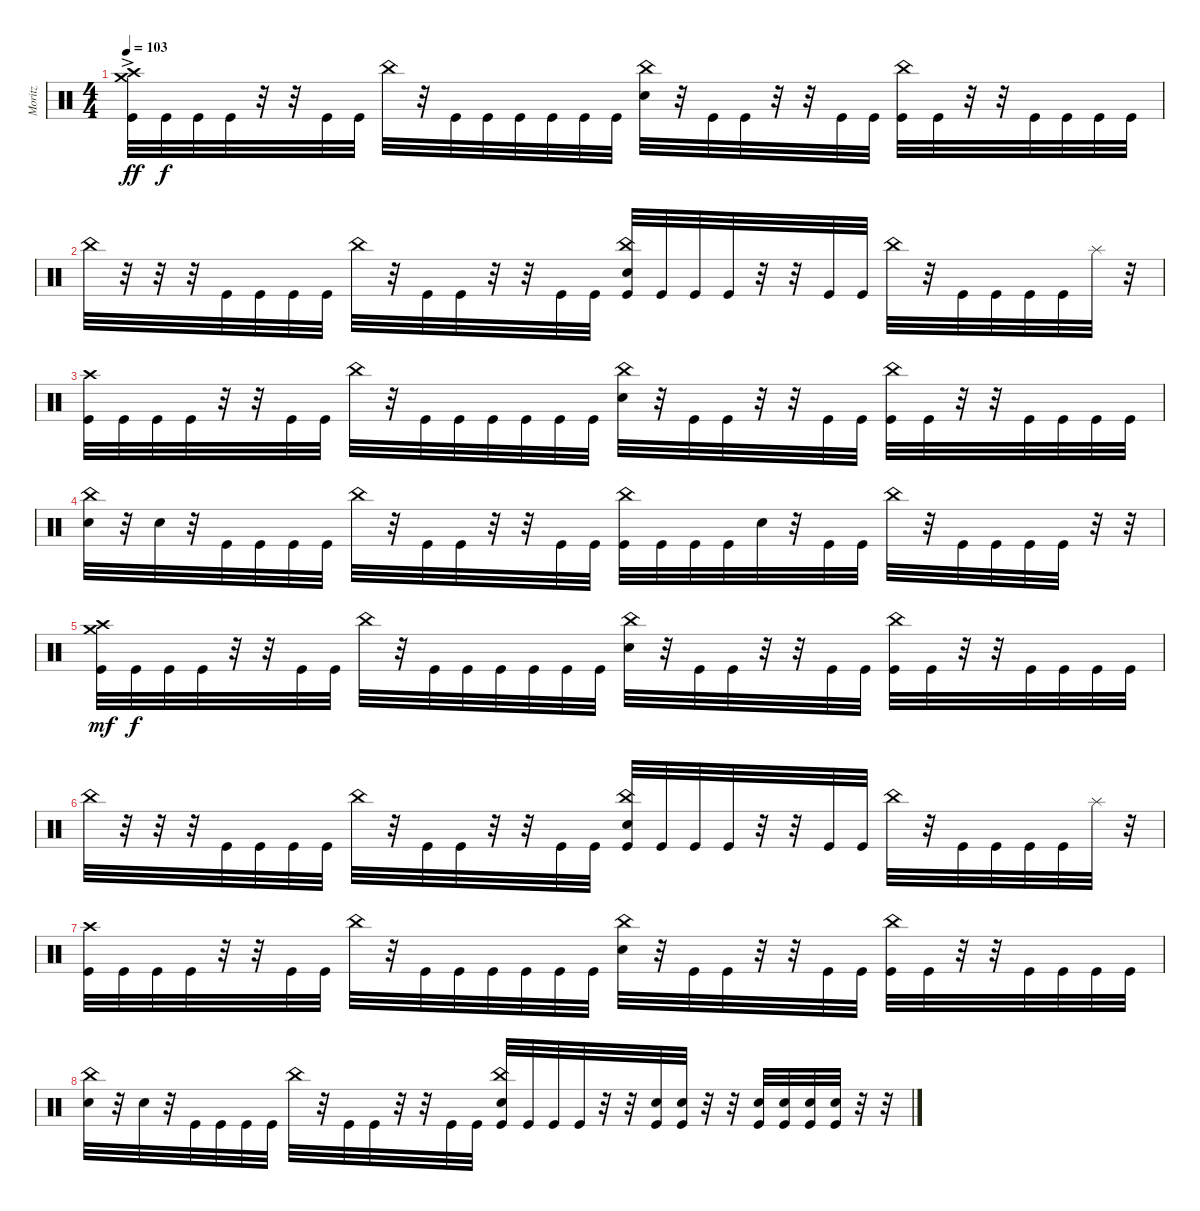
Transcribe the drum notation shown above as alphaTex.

\track ("Moritz" "Moritz") {instrument percussion}
\staff {score}
\articulation defaults
\ts (4 4)
\tempo 103
\clef neutral
\ks c
("Crash medium (hit)"{ac} "Crash high (hit)"{ac} "Kick (hit)"{ac}).32{dy ff} "Kick (hit)".32{dy f} "Kick (hit)".32 "Kick (hit)".32 r.32 r.32 "Kick (hit)".32 "Kick (hit)".32 "China (hit)".32 r.32 "Kick (hit)".32 "Kick (hit)".32 "Kick (hit)".32 "Kick (hit)".32 "Kick (hit)".32 "Kick (hit)".32 ("China (hit)" "Snare (hit) 2").32 r.32 "Kick (hit)".32 "Kick (hit)".32 r.32 r.32 "Kick (hit)".32 "Kick (hit)".32 ("China (hit)" "Kick (hit)").32 "Kick (hit)".32 r.32 r.32 "Kick (hit)".32 "Kick (hit)".32 "Kick (hit)".32 "Kick (hit)".32 |
"China (hit)".32 r.32 r.32 r.32 "Kick (hit)".32 "Kick (hit)".32 "Kick (hit)".32 "Kick (hit)".32 "China (hit)".32 r.32 "Kick (hit)".32 "Kick (hit)".32 r.32 r.32 "Kick (hit)".32 "Kick (hit)".32 ("China (hit)" "Snare (hit) 2" "Kick (hit)").32 "Kick (hit)".32 "Kick (hit)".32 "Kick (hit)".32 r.32 r.32 "Kick (hit)".32 "Kick (hit)".32 "China (hit)".32 r.32 "Kick (hit)".32 "Kick (hit)".32 "Kick (hit)".32 "Kick (hit)".32 "Splash (hit)".32 r.32 |
("Crash high (hit)" "Kick (hit)").32 "Kick (hit)".32 "Kick (hit)".32 "Kick (hit)".32 r.32 r.32 "Kick (hit)".32 "Kick (hit)".32 "China (hit)".32 r.32 "Kick (hit)".32 "Kick (hit)".32 "Kick (hit)".32 "Kick (hit)".32 "Kick (hit)".32 "Kick (hit)".32 ("China (hit)" "Snare (hit) 2").32 r.32 "Kick (hit)".32 "Kick (hit)".32 r.32 r.32 "Kick (hit)".32 "Kick (hit)".32 ("China (hit)" "Kick (hit)").32 "Kick (hit)".32 r.32 r.32 "Kick (hit)".32 "Kick (hit)".32 "Kick (hit)".32 "Kick (hit)".32 |
("China (hit)" "Snare (hit) 2").32 r.32 "Snare (hit) 2".32 r.32 "Kick (hit)".32 "Kick (hit)".32 "Kick (hit)".32 "Kick (hit)".32 "China (hit)".32 r.32 "Kick (hit)".32 "Kick (hit)".32 r.32 r.32 "Kick (hit)".32 "Kick (hit)".32 ("China (hit)" "Kick (hit)").32 "Kick (hit)".32 "Kick (hit)".32 "Kick (hit)".32 "Snare (hit) 2".32 r.32 "Kick (hit)".32 "Kick (hit)".32 "China (hit)".32 r.32 "Kick (hit)".32 "Kick (hit)".32 "Kick (hit)".32 "Kick (hit)".32 r.32 r.32 |
("Crash medium (hit)" "Crash high (hit)" "Kick (hit)").32{dy mf} "Kick (hit)".32{dy f} "Kick (hit)".32 "Kick (hit)".32 r.32 r.32 "Kick (hit)".32 "Kick (hit)".32 "China (hit)".32 r.32 "Kick (hit)".32 "Kick (hit)".32 "Kick (hit)".32 "Kick (hit)".32 "Kick (hit)".32 "Kick (hit)".32 ("China (hit)" "Snare (hit) 2").32 r.32 "Kick (hit)".32 "Kick (hit)".32 r.32 r.32 "Kick (hit)".32 "Kick (hit)".32 ("China (hit)" "Kick (hit)").32 "Kick (hit)".32 r.32 r.32 "Kick (hit)".32 "Kick (hit)".32 "Kick (hit)".32 "Kick (hit)".32 |
"China (hit)".32 r.32 r.32 r.32 "Kick (hit)".32 "Kick (hit)".32 "Kick (hit)".32 "Kick (hit)".32 "China (hit)".32 r.32 "Kick (hit)".32 "Kick (hit)".32 r.32 r.32 "Kick (hit)".32 "Kick (hit)".32 ("China (hit)" "Snare (hit) 2" "Kick (hit)").32 "Kick (hit)".32 "Kick (hit)".32 "Kick (hit)".32 r.32 r.32 "Kick (hit)".32 "Kick (hit)".32 "China (hit)".32 r.32 "Kick (hit)".32 "Kick (hit)".32 "Kick (hit)".32 "Kick (hit)".32 "Splash (hit)".32 r.32 |
("Crash high (hit)" "Kick (hit)").32 "Kick (hit)".32 "Kick (hit)".32 "Kick (hit)".32 r.32 r.32 "Kick (hit)".32 "Kick (hit)".32 "China (hit)".32 r.32 "Kick (hit)".32 "Kick (hit)".32 "Kick (hit)".32 "Kick (hit)".32 "Kick (hit)".32 "Kick (hit)".32 ("China (hit)" "Snare (hit) 2").32 r.32 "Kick (hit)".32 "Kick (hit)".32 r.32 r.32 "Kick (hit)".32 "Kick (hit)".32 ("China (hit)" "Kick (hit)").32 "Kick (hit)".32 r.32 r.32 "Kick (hit)".32 "Kick (hit)".32 "Kick (hit)".32 "Kick (hit)".32 |
("China (hit)" "Snare (hit) 2").32 r.32 "Snare (hit) 2".32 r.32 "Kick (hit)".32 "Kick (hit)".32 "Kick (hit)".32 "Kick (hit)".32 "China (hit)".32 r.32 "Kick (hit)".32 "Kick (hit)".32 r.32 r.32 "Kick (hit)".32 "Kick (hit)".32 ("China (hit)" "Snare (hit) 2" "Kick (hit)").32 "Kick (hit)".32 "Kick (hit)".32 "Kick (hit)".32 r.32 r.32 ("Snare (hit) 2" "Kick (hit)").32 ("Snare (hit) 2" "Kick (hit)").32 r.32 r.32 ("Snare (hit) 2" "Kick (hit)").32 ("Snare (hit) 2" "Kick (hit)").32 ("Snare (hit) 2" "Kick (hit)").32 ("Snare (hit) 2" "Kick (hit)").32 r.32 r.32
